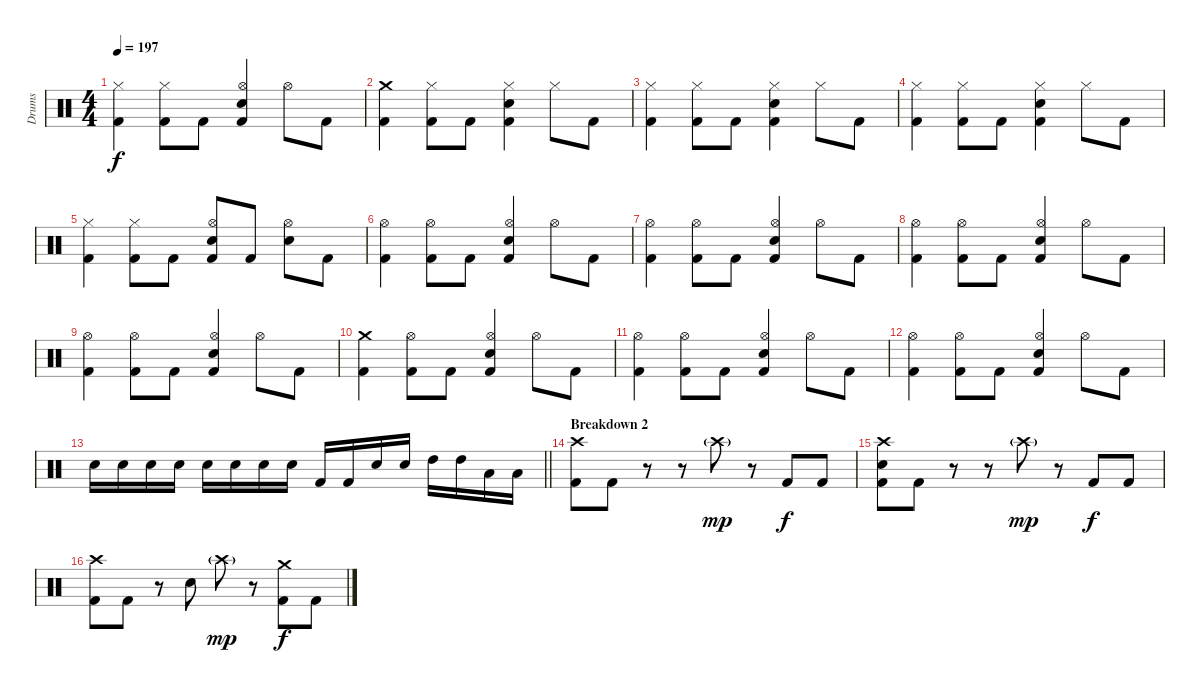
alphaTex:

\track ("Drums" "Drums") {instrument percussion}
\staff {score}
\articulation defaults
\ts (4 4)
\tempo 197
\clef neutral
\ks c
("Hi-Hat (closed)" "Kick (hit) 2").4{dy f volume 16} ("Hi-Hat (closed)" "Kick (hit) 2").8 "Kick (hit) 2".8 ("Hi-Hat (open)" "Electric Snare (hit)" "Kick (hit) 2").4 "Hi-Hat (open)".8 "Kick (hit) 2".8 |
("Crash medium (hit)" "Kick (hit) 2").4{volume 16} ("Hi-Hat (closed)" "Kick (hit) 2").8 "Kick (hit) 2".8 ("Hi-Hat (closed)" "Electric Snare (hit)" "Kick (hit) 2").4 "Hi-Hat (closed)".8 "Kick (hit) 2".8 |
("Hi-Hat (closed)" "Kick (hit) 2").4{volume 16} ("Hi-Hat (closed)" "Kick (hit) 2").8 "Kick (hit) 2".8 ("Hi-Hat (closed)" "Electric Snare (hit)" "Kick (hit) 2").4 "Hi-Hat (closed)".8 "Kick (hit) 2".8 |
("Hi-Hat (closed)" "Kick (hit) 2").4{volume 16} ("Hi-Hat (closed)" "Kick (hit) 2").8 "Kick (hit) 2".8 ("Hi-Hat (closed)" "Electric Snare (hit)" "Kick (hit) 2").4 "Hi-Hat (closed)".8 "Kick (hit) 2".8 |
("Hi-Hat (closed)" "Kick (hit) 2").4{volume 16} ("Hi-Hat (closed)" "Kick (hit) 2").8 "Kick (hit) 2".8 ("Hi-Hat (open)" "Electric Snare (hit)" "Kick (hit) 2").8 "Kick (hit) 2".8 ("Hi-Hat (open)" "Electric Snare (hit)").8 "Kick (hit) 2".8 |
("Hi-Hat (open)" "Kick (hit) 2").4{volume 16} ("Hi-Hat (open)" "Kick (hit) 2").8 "Kick (hit) 2".8 ("Hi-Hat (open)" "Electric Snare (hit)" "Kick (hit) 2").4 "Hi-Hat (open)".8 "Kick (hit) 2".8 |
("Hi-Hat (open)" "Kick (hit) 2").4{volume 16} ("Hi-Hat (open)" "Kick (hit) 2").8 "Kick (hit) 2".8 ("Hi-Hat (open)" "Electric Snare (hit)" "Kick (hit) 2").4 "Hi-Hat (open)".8 "Kick (hit) 2".8 |
("Hi-Hat (open)" "Kick (hit) 2").4{volume 16} ("Hi-Hat (open)" "Kick (hit) 2").8 "Kick (hit) 2".8 ("Hi-Hat (open)" "Electric Snare (hit)" "Kick (hit) 2").4 "Hi-Hat (open)".8 "Kick (hit) 2".8 |
("Hi-Hat (open)" "Kick (hit) 2").4{volume 16} ("Hi-Hat (open)" "Kick (hit) 2").8 "Kick (hit) 2".8 ("Hi-Hat (open)" "Electric Snare (hit)" "Kick (hit) 2").4 "Hi-Hat (open)".8 "Kick (hit) 2".8 |
("Crash medium (hit)" "Kick (hit) 2").4{volume 16} ("Hi-Hat (open)" "Kick (hit) 2").8 "Kick (hit) 2".8 ("Hi-Hat (open)" "Electric Snare (hit)" "Kick (hit) 2").4 "Hi-Hat (open)".8 "Kick (hit) 2".8 |
("Hi-Hat (open)" "Kick (hit) 2").4{volume 16} ("Hi-Hat (open)" "Kick (hit) 2").8 "Kick (hit) 2".8 ("Hi-Hat (open)" "Electric Snare (hit)" "Kick (hit) 2").4 "Hi-Hat (open)".8 "Kick (hit) 2".8 |
("Hi-Hat (open)" "Kick (hit) 2").4{volume 16} ("Hi-Hat (open)" "Kick (hit) 2").8 "Kick (hit) 2".8 ("Hi-Hat (open)" "Electric Snare (hit)" "Kick (hit) 2").4 "Hi-Hat (open)".8 "Kick (hit) 2".8 |
\barLineRight lightlight "Electric Snare (hit)".16 "Electric Snare (hit)".16 "Electric Snare (hit)".16 "Electric Snare (hit)".16 "Electric Snare (hit)".16 "Electric Snare (hit)".16 "Electric Snare (hit)".16 "Electric Snare (hit)".16 "Kick (hit) 2".16 "Kick (hit) 2".16 "Electric Snare (hit)".16 "Electric Snare (hit)".16 "High Tom (hit)".16 "High Tom (hit)".16 "Low Tom (hit)".16 "Low Tom (hit)".16
|
\section ("" "Breakdown 2")
("Crash high (hit)" "Kick (hit) 2").8 "Kick (hit) 2".8 r.8 r.8 "Crash high (hit)"{g}.8{dy mp} r.8 "Kick (hit) 2".8{dy f} "Kick (hit) 2".8 |
("Crash high (hit)" "Electric Snare (hit)" "Kick (hit) 2").8 "Kick (hit) 2".8 r.8 r.8 "Crash high (hit)"{g}.8{dy mp} r.8 "Kick (hit) 2".8{dy f} "Kick (hit) 2".8 |
("Crash high (hit)" "Kick (hit) 2").8 "Kick (hit) 2".8 r.8 "Electric Snare (hit)".8 "Crash high (hit)"{g}.8{dy mp} r.8 ("Crash medium (hit)" "Kick (hit) 2").8{dy f} "Kick (hit) 2".8
